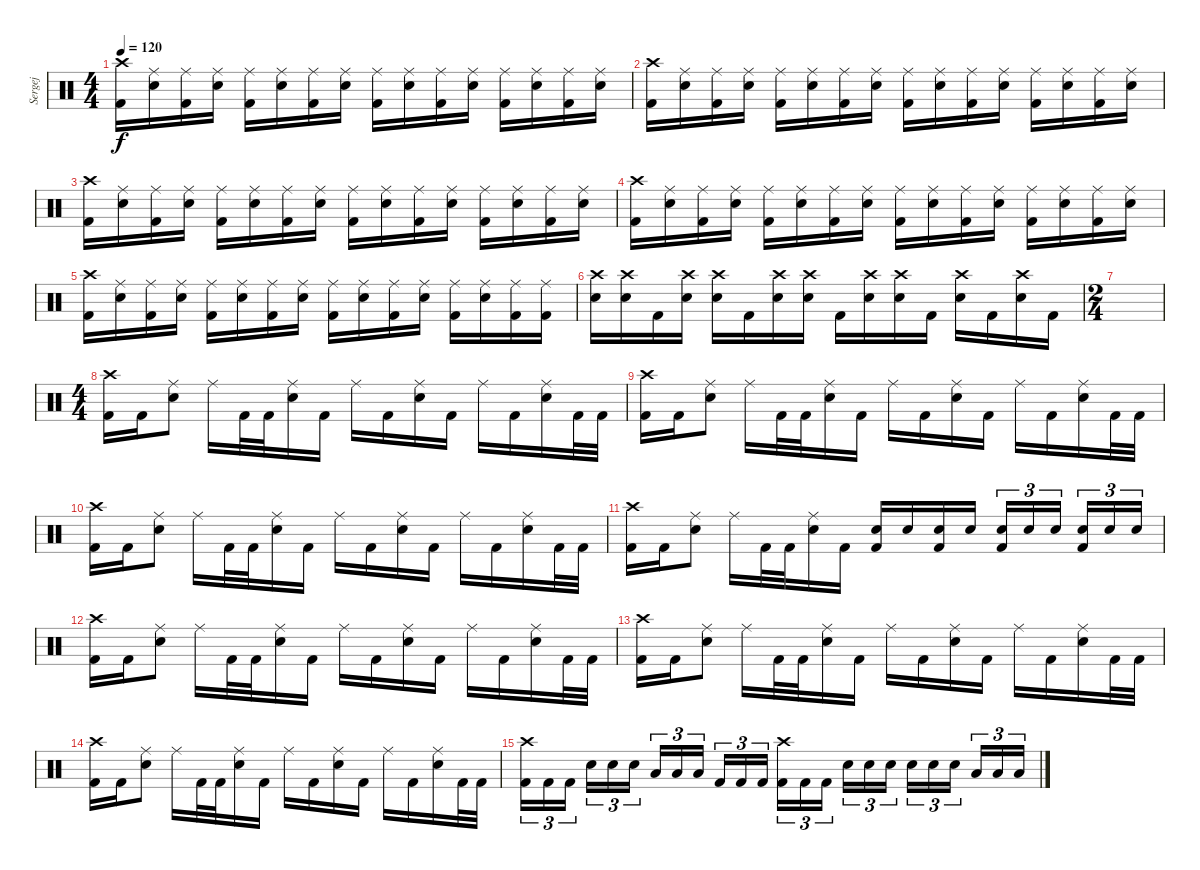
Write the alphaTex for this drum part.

\track ("Sergej" "Sergej") {instrument percussion}
\staff {score}
\articulation defaults
\ts (4 4)
\tempo 120
\clef neutral
\ks c
("Crash high (hit)" "Kick (hit) 2").16{dy f} ("Ride (middle)" "Snare (hit) 2").16 ("Ride (middle)" "Kick (hit) 2").16 ("Ride (middle)" "Snare (hit) 2").16 ("Ride (middle)" "Kick (hit) 2").16 ("Ride (middle)" "Snare (hit) 2").16 ("Ride (middle)" "Kick (hit) 2").16 ("Ride (middle)" "Snare (hit) 2").16 ("Ride (middle)" "Kick (hit) 2").16 ("Ride (middle)" "Snare (hit) 2").16 ("Ride (middle)" "Kick (hit) 2").16 ("Ride (middle)" "Snare (hit) 2").16 ("Ride (middle)" "Kick (hit) 2").16 ("Ride (middle)" "Snare (hit) 2").16 ("Ride (middle)" "Kick (hit) 2").16 ("Ride (middle)" "Snare (hit) 2").16 |
("Crash high (hit)" "Kick (hit) 2").16 ("Ride (middle)" "Snare (hit) 2").16 ("Ride (middle)" "Kick (hit) 2").16 ("Ride (middle)" "Snare (hit) 2").16 ("Ride (middle)" "Kick (hit) 2").16 ("Ride (middle)" "Snare (hit) 2").16 ("Ride (middle)" "Kick (hit) 2").16 ("Ride (middle)" "Snare (hit) 2").16 ("Ride (middle)" "Kick (hit) 2").16 ("Ride (middle)" "Snare (hit) 2").16 ("Ride (middle)" "Kick (hit) 2").16 ("Ride (middle)" "Snare (hit) 2").16 ("Ride (middle)" "Kick (hit) 2").16 ("Ride (middle)" "Snare (hit) 2").16 ("Ride (middle)" "Kick (hit) 2").16 ("Ride (middle)" "Snare (hit) 2").16 |
("Crash high (hit)" "Kick (hit) 2").16 ("Ride (middle)" "Snare (hit) 2").16 ("Ride (middle)" "Kick (hit) 2").16 ("Ride (middle)" "Snare (hit) 2").16 ("Ride (middle)" "Kick (hit) 2").16 ("Ride (middle)" "Snare (hit) 2").16 ("Ride (middle)" "Kick (hit) 2").16 ("Ride (middle)" "Snare (hit) 2").16 ("Ride (middle)" "Kick (hit) 2").16 ("Ride (middle)" "Snare (hit) 2").16 ("Ride (middle)" "Kick (hit) 2").16 ("Ride (middle)" "Snare (hit) 2").16 ("Ride (middle)" "Kick (hit) 2").16 ("Ride (middle)" "Snare (hit) 2").16 ("Ride (middle)" "Kick (hit) 2").16 ("Ride (middle)" "Snare (hit) 2").16 |
("Crash high (hit)" "Kick (hit) 2").16 ("Ride (middle)" "Snare (hit) 2").16 ("Ride (middle)" "Kick (hit) 2").16 ("Ride (middle)" "Snare (hit) 2").16 ("Ride (middle)" "Kick (hit) 2").16 ("Ride (middle)" "Snare (hit) 2").16 ("Ride (middle)" "Kick (hit) 2").16 ("Ride (middle)" "Snare (hit) 2").16 ("Ride (middle)" "Kick (hit) 2").16 ("Ride (middle)" "Snare (hit) 2").16 ("Ride (middle)" "Kick (hit) 2").16 ("Ride (middle)" "Snare (hit) 2").16 ("Ride (middle)" "Kick (hit) 2").16 ("Ride (middle)" "Snare (hit) 2").16 ("Ride (middle)" "Kick (hit) 2").16 ("Ride (middle)" "Snare (hit) 2").16 |
("Crash high (hit)" "Kick (hit) 2").16 ("Ride (middle)" "Snare (hit) 2").16 ("Ride (middle)" "Kick (hit) 2").16 ("Ride (middle)" "Snare (hit) 2").16 ("Ride (middle)" "Kick (hit) 2").16 ("Ride (middle)" "Snare (hit) 2").16 ("Ride (middle)" "Kick (hit) 2").16 ("Ride (middle)" "Snare (hit) 2").16 ("Ride (middle)" "Kick (hit) 2").16 ("Ride (middle)" "Snare (hit) 2").16 ("Ride (middle)" "Kick (hit) 2").16 ("Ride (middle)" "Snare (hit) 2").16 ("Ride (middle)" "Kick (hit) 2").16 ("Ride (middle)" "Snare (hit) 2").16 ("Ride (middle)" "Kick (hit) 2").16 ("Ride (middle)" "Kick (hit) 2").16 |
("Crash high (hit)" "Snare (hit) 2").16 ("Crash high (hit)" "Snare (hit) 2").16 "Kick (hit) 2".16 ("Crash high (hit)" "Snare (hit) 2").16 ("Crash high (hit)" "Snare (hit) 2").16 "Kick (hit) 2".16 ("Crash high (hit)" "Snare (hit) 2").16 ("Crash high (hit)" "Snare (hit) 2").16 "Kick (hit) 2".16 ("Crash high (hit)" "Snare (hit) 2").16 ("Crash high (hit)" "Snare (hit) 2").16 "Kick (hit) 2".16 ("Crash high (hit)" "Snare (hit) 2").16 "Kick (hit) 2".16 ("Crash high (hit)" "Snare (hit) 2").16 "Kick (hit) 2".16 |
\ts (2 4)
|
\ts (4 4)
("Crash high (hit)" "Kick (hit) 2").16 "Kick (hit) 2".16 ("Ride (middle)" "Snare (hit) 2").8 "Ride (middle)".16 "Kick (hit) 2".32 "Kick (hit) 2".32 ("Ride (middle)" "Snare (hit) 2").16 "Kick (hit) 2".16 "Ride (middle)".16 "Kick (hit) 2".16 ("Ride (middle)" "Snare (hit) 2").16 "Kick (hit) 2".16 "Ride (middle)".16 "Kick (hit) 2".16 ("Ride (middle)" "Snare (hit) 2").16 "Kick (hit) 2".32 "Kick (hit) 2".32 |
("Crash high (hit)" "Kick (hit) 2").16 "Kick (hit) 2".16 ("Ride (middle)" "Snare (hit) 2").8 "Ride (middle)".16 "Kick (hit) 2".32 "Kick (hit) 2".32 ("Ride (middle)" "Snare (hit) 2").16 "Kick (hit) 2".16 "Ride (middle)".16 "Kick (hit) 2".16 ("Ride (middle)" "Snare (hit) 2").16 "Kick (hit) 2".16 "Ride (middle)".16 "Kick (hit) 2".16 ("Ride (middle)" "Snare (hit) 2").16 "Kick (hit) 2".32 "Kick (hit) 2".32 |
("Crash high (hit)" "Kick (hit) 2").16 "Kick (hit) 2".16 ("Ride (middle)" "Snare (hit) 2").8 "Ride (middle)".16 "Kick (hit) 2".32 "Kick (hit) 2".32 ("Ride (middle)" "Snare (hit) 2").16 "Kick (hit) 2".16 "Ride (middle)".16 "Kick (hit) 2".16 ("Ride (middle)" "Snare (hit) 2").16 "Kick (hit) 2".16 "Ride (middle)".16 "Kick (hit) 2".16 ("Ride (middle)" "Snare (hit) 2").16 "Kick (hit) 2".32 "Kick (hit) 2".32 |
("Crash high (hit)" "Kick (hit) 2").16 "Kick (hit) 2".16 ("Ride (middle)" "Snare (hit) 2").8 "Ride (middle)".16 "Kick (hit) 2".32 "Kick (hit) 2".32 ("Ride (middle)" "Snare (hit) 2").16 "Kick (hit) 2".16 ("Kick (hit) 2" "Snare (hit) 2").16 "Snare (hit) 2".16 ("Kick (hit) 2" "Snare (hit) 2").16 "Snare (hit) 2".16 ("Kick (hit) 2" "Snare (hit) 2").16{tu (3 2)} "Snare (hit) 2".16{tu (3 2)} "Snare (hit) 2".16{tu (3 2)} ("Kick (hit) 2" "Snare (hit) 2").16{tu (3 2)} "Snare (hit) 2".16{tu (3 2)} "Snare (hit) 2".16{tu (3 2)} |
("Crash high (hit)" "Kick (hit) 2").16 "Kick (hit) 2".16 ("Ride (middle)" "Snare (hit) 2").8 "Ride (middle)".16 "Kick (hit) 2".32 "Kick (hit) 2".32 ("Ride (middle)" "Snare (hit) 2").16 "Kick (hit) 2".16 "Ride (middle)".16 "Kick (hit) 2".16 ("Ride (middle)" "Snare (hit) 2").16 "Kick (hit) 2".16 "Ride (middle)".16 "Kick (hit) 2".16 ("Ride (middle)" "Snare (hit) 2").16 "Kick (hit) 2".32 "Kick (hit) 2".32 |
("Crash high (hit)" "Kick (hit) 2").16 "Kick (hit) 2".16 ("Ride (middle)" "Snare (hit) 2").8 "Ride (middle)".16 "Kick (hit) 2".32 "Kick (hit) 2".32 ("Ride (middle)" "Snare (hit) 2").16 "Kick (hit) 2".16 "Ride (middle)".16 "Kick (hit) 2".16 ("Ride (middle)" "Snare (hit) 2").16 "Kick (hit) 2".16 "Ride (middle)".16 "Kick (hit) 2".16 ("Ride (middle)" "Snare (hit) 2").16 "Kick (hit) 2".32 "Kick (hit) 2".32 |
("Crash high (hit)" "Kick (hit) 2").16 "Kick (hit) 2".16 ("Ride (middle)" "Snare (hit) 2").8 "Ride (middle)".16 "Kick (hit) 2".32 "Kick (hit) 2".32 ("Ride (middle)" "Snare (hit) 2").16 "Kick (hit) 2".16 "Ride (middle)".16 "Kick (hit) 2".16 ("Ride (middle)" "Snare (hit) 2").16 "Kick (hit) 2".16 "Ride (middle)".16 "Kick (hit) 2".16 ("Ride (middle)" "Snare (hit) 2").16 "Kick (hit) 2".32 "Kick (hit) 2".32 |
("Crash high (hit)" "Kick (hit) 2").16{tu (3 2)} "Kick (hit) 2".16{tu (3 2)} "Kick (hit) 2".16{tu (3 2)} "Snare (hit) 2".16{tu (3 2)} "Snare (hit) 2".16{tu (3 2)} "Snare (hit) 2".16{tu (3 2)} "Low Tom (hit)".16{tu (3 2)} "Low Tom (hit)".16{tu (3 2)} "Low Tom (hit)".16{tu (3 2)} "Kick (hit) 2".16{tu (3 2)} "Kick (hit) 2".16{tu (3 2)} "Kick (hit) 2".16{tu (3 2)} ("Crash high (hit)" "Kick (hit) 2").16{tu (3 2)} "Kick (hit) 2".16{tu (3 2)} "Kick (hit) 2".16{tu (3 2)} "Snare (hit) 2".16{tu (3 2)} "Snare (hit) 2".16{tu (3 2)} "Snare (hit) 2".16{tu (3 2)} "Snare (hit) 2".16{tu (3 2)} "Snare (hit) 2".16{tu (3 2)} "Snare (hit) 2".16{tu (3 2)} "Low Tom (hit)".16{tu (3 2)} "Low Tom (hit)".16{tu (3 2)} "Low Tom (hit)".16{tu (3 2)}
